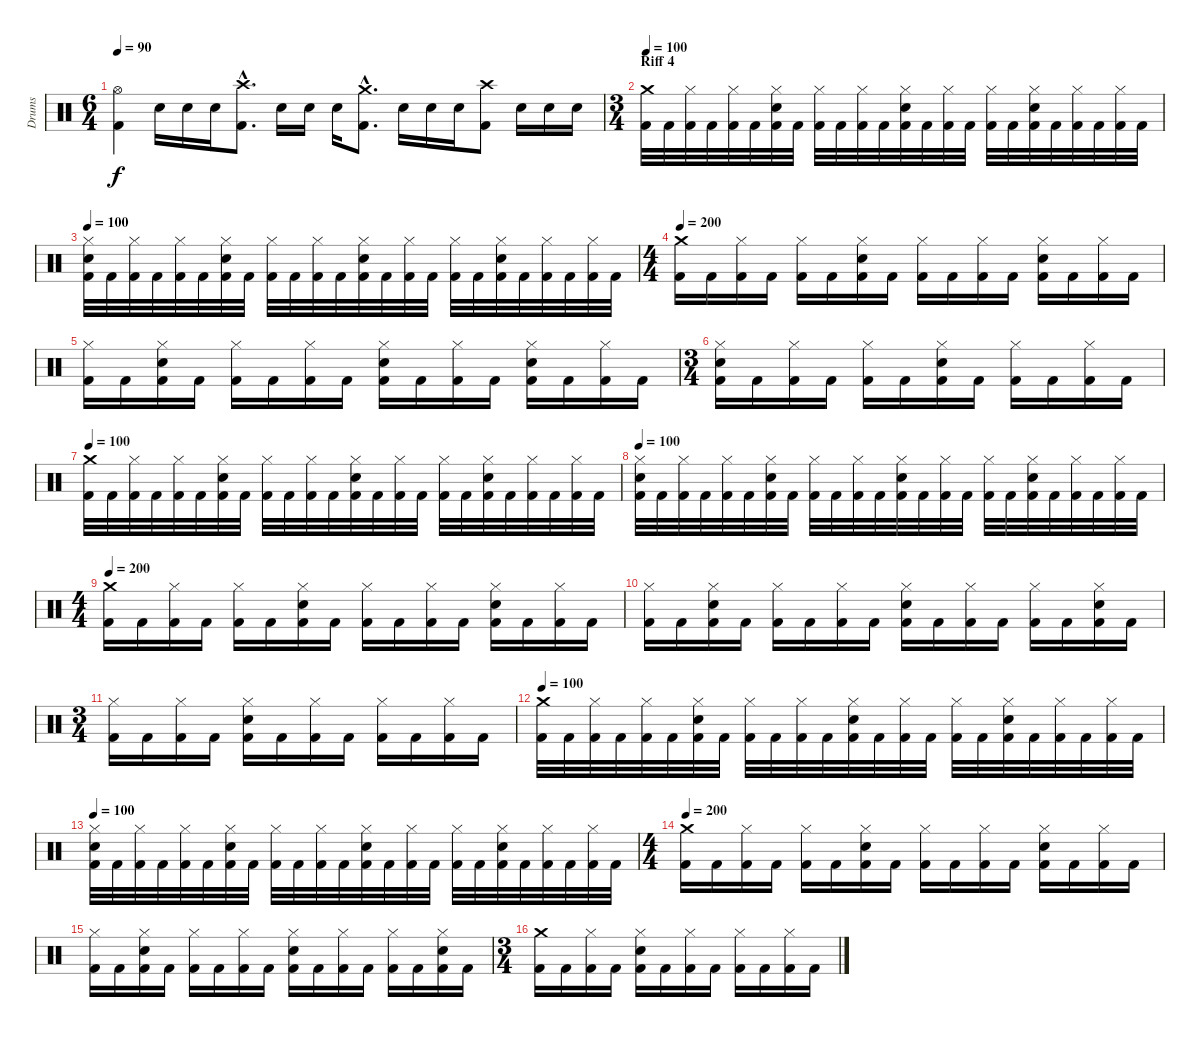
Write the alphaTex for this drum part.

\track ("Drums" "Drums") {instrument percussion}
\staff {score}
\articulation defaults
\ts (6 4)
\tempo 90
\clef neutral
\ks c
("Hi-Hat (open)" "Kick (hit) 2").4{dy f} "Electric Snare (hit)".16 "Electric Snare (hit)".16 "Electric Snare (hit)".16 ("Crash high (hit)"{hac} "Kick (hit) 2"{hac}).8{d} "Electric Snare (hit)".16 "Electric Snare (hit)".16 "Electric Snare (hit)".16 ("Crash medium (hit)"{hac} "Kick (hit) 2"{hac}).8{d} "Electric Snare (hit)".16 "Electric Snare (hit)".16 "Electric Snare (hit)".16 ("Crash high (hit)" "Kick (hit) 2").8 "Electric Snare (hit)".16 "Electric Snare (hit)".16 "Electric Snare (hit)".16 |
\ts (3 4)
\section ("" "Riff 4")
\tempo 100
("Crash medium (hit)" "Kick (hit) 2").32 "Kick (hit) 2".32 ("Hi-Hat (closed)" "Kick (hit) 2").32 "Kick (hit) 2".32 ("Hi-Hat (closed)" "Kick (hit) 2").32 "Kick (hit) 2".32 ("Hi-Hat (closed)" "Electric Snare (hit)" "Kick (hit) 2").32 "Kick (hit) 2".32 ("Hi-Hat (closed)" "Kick (hit) 2").32 "Kick (hit) 2".32 ("Hi-Hat (closed)" "Kick (hit) 2").32 "Kick (hit) 2".32 ("Hi-Hat (closed)" "Electric Snare (hit)" "Kick (hit) 2").32 "Kick (hit) 2".32 ("Hi-Hat (closed)" "Kick (hit) 2").32 "Kick (hit) 2".32 ("Hi-Hat (closed)" "Kick (hit) 2").32 "Kick (hit) 2".32 ("Hi-Hat (closed)" "Electric Snare (hit)" "Kick (hit) 2").32 "Kick (hit) 2".32 ("Hi-Hat (closed)" "Kick (hit) 2").32 "Kick (hit) 2".32 ("Hi-Hat (closed)" "Kick (hit) 2").32 "Kick (hit) 2".32 |
\tempo 100
("Hi-Hat (closed)" "Electric Snare (hit)" "Kick (hit) 2").32 "Kick (hit) 2".32 ("Hi-Hat (closed)" "Kick (hit) 2").32 "Kick (hit) 2".32 ("Hi-Hat (closed)" "Kick (hit) 2").32 "Kick (hit) 2".32 ("Hi-Hat (closed)" "Electric Snare (hit)" "Kick (hit) 2").32 "Kick (hit) 2".32 ("Hi-Hat (closed)" "Kick (hit) 2").32 "Kick (hit) 2".32 ("Hi-Hat (closed)" "Kick (hit) 2").32 "Kick (hit) 2".32 ("Hi-Hat (closed)" "Electric Snare (hit)" "Kick (hit) 2").32 "Kick (hit) 2".32 ("Hi-Hat (closed)" "Kick (hit) 2").32 "Kick (hit) 2".32 ("Hi-Hat (closed)" "Kick (hit) 2").32 "Kick (hit) 2".32 ("Hi-Hat (closed)" "Electric Snare (hit)" "Kick (hit) 2").32 "Kick (hit) 2".32 ("Hi-Hat (closed)" "Kick (hit) 2").32 "Kick (hit) 2".32 ("Hi-Hat (closed)" "Kick (hit) 2").32 "Kick (hit) 2".32 |
\ts (4 4)
\tempo 200
("Crash medium (hit)" "Kick (hit) 2").16 "Kick (hit) 2".16 ("Hi-Hat (closed)" "Kick (hit) 2").16 "Kick (hit) 2".16 ("Hi-Hat (closed)" "Kick (hit) 2").16 "Kick (hit) 2".16 ("Hi-Hat (closed)" "Electric Snare (hit)" "Kick (hit) 2").16 "Kick (hit) 2".16 ("Hi-Hat (closed)" "Kick (hit) 2").16 "Kick (hit) 2".16 ("Hi-Hat (closed)" "Kick (hit) 2").16 "Kick (hit) 2".16 ("Hi-Hat (closed)" "Electric Snare (hit)" "Kick (hit) 2").16 "Kick (hit) 2".16 ("Hi-Hat (closed)" "Kick (hit) 2").16 "Kick (hit) 2".16 |
("Hi-Hat (closed)" "Kick (hit) 2").16 "Kick (hit) 2".16 ("Hi-Hat (closed)" "Electric Snare (hit)" "Kick (hit) 2").16 "Kick (hit) 2".16 ("Hi-Hat (closed)" "Kick (hit) 2").16 "Kick (hit) 2".16 ("Hi-Hat (closed)" "Kick (hit) 2").16 "Kick (hit) 2".16 ("Hi-Hat (closed)" "Electric Snare (hit)" "Kick (hit) 2").16 "Kick (hit) 2".16 ("Hi-Hat (closed)" "Kick (hit) 2").16 "Kick (hit) 2".16 ("Hi-Hat (closed)" "Electric Snare (hit)" "Kick (hit) 2").16 "Kick (hit) 2".16 ("Hi-Hat (closed)" "Kick (hit) 2").16 "Kick (hit) 2".16 |
\ts (3 4)
("Hi-Hat (closed)" "Electric Snare (hit)" "Kick (hit) 2").16 "Kick (hit) 2".16 ("Hi-Hat (closed)" "Kick (hit) 2").16 "Kick (hit) 2".16 ("Hi-Hat (closed)" "Kick (hit) 2").16 "Kick (hit) 2".16 ("Hi-Hat (closed)" "Electric Snare (hit)" "Kick (hit) 2").16 "Kick (hit) 2".16 ("Hi-Hat (closed)" "Kick (hit) 2").16 "Kick (hit) 2".16 ("Hi-Hat (closed)" "Kick (hit) 2").16 "Kick (hit) 2".16 |
\tempo 100
("Crash medium (hit)" "Kick (hit) 2").32 "Kick (hit) 2".32 ("Hi-Hat (closed)" "Kick (hit) 2").32 "Kick (hit) 2".32 ("Hi-Hat (closed)" "Kick (hit) 2").32 "Kick (hit) 2".32 ("Hi-Hat (closed)" "Electric Snare (hit)" "Kick (hit) 2").32 "Kick (hit) 2".32 ("Hi-Hat (closed)" "Kick (hit) 2").32 "Kick (hit) 2".32 ("Hi-Hat (closed)" "Kick (hit) 2").32 "Kick (hit) 2".32 ("Hi-Hat (closed)" "Electric Snare (hit)" "Kick (hit) 2").32 "Kick (hit) 2".32 ("Hi-Hat (closed)" "Kick (hit) 2").32 "Kick (hit) 2".32 ("Hi-Hat (closed)" "Kick (hit) 2").32 "Kick (hit) 2".32 ("Hi-Hat (closed)" "Electric Snare (hit)" "Kick (hit) 2").32 "Kick (hit) 2".32 ("Hi-Hat (closed)" "Kick (hit) 2").32 "Kick (hit) 2".32 ("Hi-Hat (closed)" "Kick (hit) 2").32 "Kick (hit) 2".32 |
\tempo 100
("Hi-Hat (closed)" "Electric Snare (hit)" "Kick (hit) 2").32 "Kick (hit) 2".32 ("Hi-Hat (closed)" "Kick (hit) 2").32 "Kick (hit) 2".32 ("Hi-Hat (closed)" "Kick (hit) 2").32 "Kick (hit) 2".32 ("Hi-Hat (closed)" "Electric Snare (hit)" "Kick (hit) 2").32 "Kick (hit) 2".32 ("Hi-Hat (closed)" "Kick (hit) 2").32 "Kick (hit) 2".32 ("Hi-Hat (closed)" "Kick (hit) 2").32 "Kick (hit) 2".32 ("Hi-Hat (closed)" "Electric Snare (hit)" "Kick (hit) 2").32 "Kick (hit) 2".32 ("Hi-Hat (closed)" "Kick (hit) 2").32 "Kick (hit) 2".32 ("Hi-Hat (closed)" "Kick (hit) 2").32 "Kick (hit) 2".32 ("Hi-Hat (closed)" "Electric Snare (hit)" "Kick (hit) 2").32 "Kick (hit) 2".32 ("Hi-Hat (closed)" "Kick (hit) 2").32 "Kick (hit) 2".32 ("Hi-Hat (closed)" "Kick (hit) 2").32 "Kick (hit) 2".32 |
\ts (4 4)
\tempo 200
("Crash medium (hit)" "Kick (hit) 2").16 "Kick (hit) 2".16 ("Hi-Hat (closed)" "Kick (hit) 2").16 "Kick (hit) 2".16 ("Hi-Hat (closed)" "Kick (hit) 2").16 "Kick (hit) 2".16 ("Hi-Hat (closed)" "Electric Snare (hit)" "Kick (hit) 2").16 "Kick (hit) 2".16 ("Hi-Hat (closed)" "Kick (hit) 2").16 "Kick (hit) 2".16 ("Hi-Hat (closed)" "Kick (hit) 2").16 "Kick (hit) 2".16 ("Hi-Hat (closed)" "Electric Snare (hit)" "Kick (hit) 2").16 "Kick (hit) 2".16 ("Hi-Hat (closed)" "Kick (hit) 2").16 "Kick (hit) 2".16 |
("Hi-Hat (closed)" "Kick (hit) 2").16 "Kick (hit) 2".16 ("Hi-Hat (closed)" "Electric Snare (hit)" "Kick (hit) 2").16 "Kick (hit) 2".16 ("Hi-Hat (closed)" "Kick (hit) 2").16 "Kick (hit) 2".16 ("Hi-Hat (closed)" "Kick (hit) 2").16 "Kick (hit) 2".16 ("Hi-Hat (closed)" "Electric Snare (hit)" "Kick (hit) 2").16 "Kick (hit) 2".16 ("Hi-Hat (closed)" "Kick (hit) 2").16 "Kick (hit) 2".16 ("Hi-Hat (closed)" "Kick (hit) 2").16 "Kick (hit) 2".16 ("Hi-Hat (closed)" "Electric Snare (hit)" "Kick (hit) 2").16 "Kick (hit) 2".16 |
\ts (3 4)
("Hi-Hat (closed)" "Kick (hit) 2").16 "Kick (hit) 2".16 ("Hi-Hat (closed)" "Kick (hit) 2").16 "Kick (hit) 2".16 ("Hi-Hat (closed)" "Electric Snare (hit)" "Kick (hit) 2").16 "Kick (hit) 2".16 ("Hi-Hat (closed)" "Kick (hit) 2").16 "Kick (hit) 2".16 ("Hi-Hat (closed)" "Kick (hit) 2").16 "Kick (hit) 2".16 ("Hi-Hat (closed)" "Kick (hit) 2").16 "Kick (hit) 2".16 |
\tempo 100
("Crash medium (hit)" "Kick (hit) 2").32 "Kick (hit) 2".32 ("Hi-Hat (closed)" "Kick (hit) 2").32 "Kick (hit) 2".32 ("Hi-Hat (closed)" "Kick (hit) 2").32 "Kick (hit) 2".32 ("Hi-Hat (closed)" "Electric Snare (hit)" "Kick (hit) 2").32 "Kick (hit) 2".32 ("Hi-Hat (closed)" "Kick (hit) 2").32 "Kick (hit) 2".32 ("Hi-Hat (closed)" "Kick (hit) 2").32 "Kick (hit) 2".32 ("Hi-Hat (closed)" "Electric Snare (hit)" "Kick (hit) 2").32 "Kick (hit) 2".32 ("Hi-Hat (closed)" "Kick (hit) 2").32 "Kick (hit) 2".32 ("Hi-Hat (closed)" "Kick (hit) 2").32 "Kick (hit) 2".32 ("Hi-Hat (closed)" "Electric Snare (hit)" "Kick (hit) 2").32 "Kick (hit) 2".32 ("Hi-Hat (closed)" "Kick (hit) 2").32 "Kick (hit) 2".32 ("Hi-Hat (closed)" "Kick (hit) 2").32 "Kick (hit) 2".32 |
\tempo 100
("Hi-Hat (closed)" "Electric Snare (hit)" "Kick (hit) 2").32 "Kick (hit) 2".32 ("Hi-Hat (closed)" "Kick (hit) 2").32 "Kick (hit) 2".32 ("Hi-Hat (closed)" "Kick (hit) 2").32 "Kick (hit) 2".32 ("Hi-Hat (closed)" "Electric Snare (hit)" "Kick (hit) 2").32 "Kick (hit) 2".32 ("Hi-Hat (closed)" "Kick (hit) 2").32 "Kick (hit) 2".32 ("Hi-Hat (closed)" "Kick (hit) 2").32 "Kick (hit) 2".32 ("Hi-Hat (closed)" "Electric Snare (hit)" "Kick (hit) 2").32 "Kick (hit) 2".32 ("Hi-Hat (closed)" "Kick (hit) 2").32 "Kick (hit) 2".32 ("Hi-Hat (closed)" "Kick (hit) 2").32 "Kick (hit) 2".32 ("Hi-Hat (closed)" "Electric Snare (hit)" "Kick (hit) 2").32 "Kick (hit) 2".32 ("Hi-Hat (closed)" "Kick (hit) 2").32 "Kick (hit) 2".32 ("Hi-Hat (closed)" "Kick (hit) 2").32 "Kick (hit) 2".32 |
\ts (4 4)
\tempo 200
("Crash medium (hit)" "Kick (hit) 2").16 "Kick (hit) 2".16 ("Hi-Hat (closed)" "Kick (hit) 2").16 "Kick (hit) 2".16 ("Hi-Hat (closed)" "Kick (hit) 2").16 "Kick (hit) 2".16 ("Hi-Hat (closed)" "Electric Snare (hit)" "Kick (hit) 2").16 "Kick (hit) 2".16 ("Hi-Hat (closed)" "Kick (hit) 2").16 "Kick (hit) 2".16 ("Hi-Hat (closed)" "Kick (hit) 2").16 "Kick (hit) 2".16 ("Hi-Hat (closed)" "Electric Snare (hit)" "Kick (hit) 2").16 "Kick (hit) 2".16 ("Hi-Hat (closed)" "Kick (hit) 2").16 "Kick (hit) 2".16 |
("Hi-Hat (closed)" "Kick (hit) 2").16 "Kick (hit) 2".16 ("Hi-Hat (closed)" "Electric Snare (hit)" "Kick (hit) 2").16 "Kick (hit) 2".16 ("Hi-Hat (closed)" "Kick (hit) 2").16 "Kick (hit) 2".16 ("Hi-Hat (closed)" "Kick (hit) 2").16 "Kick (hit) 2".16 ("Hi-Hat (closed)" "Electric Snare (hit)" "Kick (hit) 2").16 "Kick (hit) 2".16 ("Hi-Hat (closed)" "Kick (hit) 2").16 "Kick (hit) 2".16 ("Hi-Hat (closed)" "Kick (hit) 2").16 "Kick (hit) 2".16 ("Hi-Hat (closed)" "Electric Snare (hit)" "Kick (hit) 2").16 "Kick (hit) 2".16 |
\ts (3 4)
("Crash medium (hit)" "Kick (hit) 2").16 "Kick (hit) 2".16 ("Hi-Hat (closed)" "Kick (hit) 2").16 "Kick (hit) 2".16 ("Hi-Hat (closed)" "Electric Snare (hit)" "Kick (hit) 2").16 "Kick (hit) 2".16 ("Hi-Hat (closed)" "Kick (hit) 2").16 "Kick (hit) 2".16 ("Hi-Hat (closed)" "Kick (hit) 2").16 "Kick (hit) 2".16 ("Hi-Hat (closed)" "Kick (hit) 2").16 "Kick (hit) 2".16
